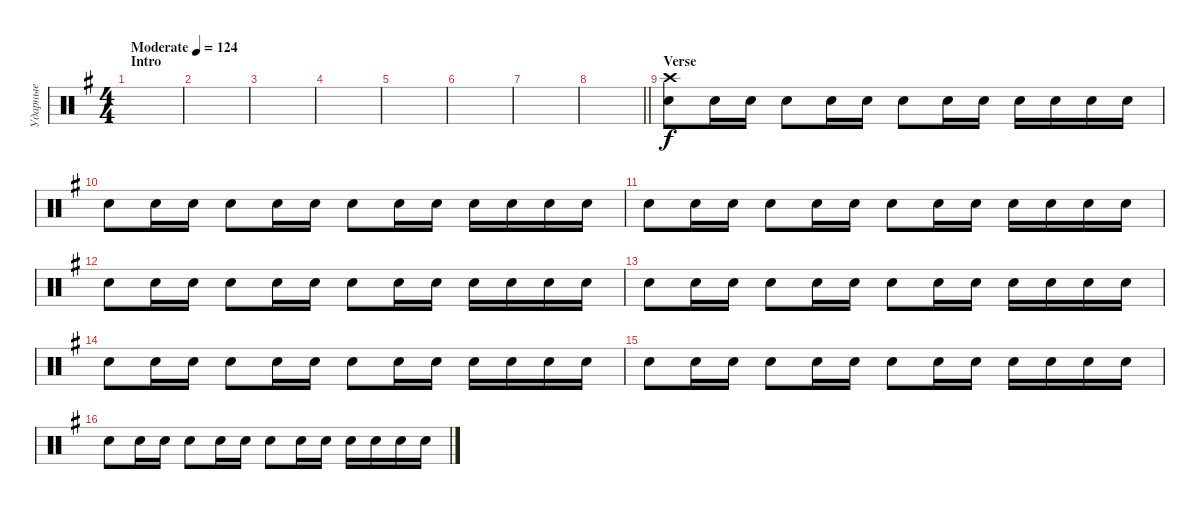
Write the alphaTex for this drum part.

\track ("Ударные" "Ударные") {instrument percussion}
\staff {score}
\articulation defaults
\ts (4 4)
\section ("" "Intro")
\tempo (124 "Moderate")
\clef neutral
\ks g
|
|
|
|
|
|
|
\barLineRight lightlight
|
\section ("" "Verse")
("Crash high (hit)" "Electric Snare (hit)").8{volume 10} "Electric Snare (hit)".16 "Electric Snare (hit)".16 "Electric Snare (hit)".8 "Electric Snare (hit)".16 "Electric Snare (hit)".16 "Electric Snare (hit)".8 "Electric Snare (hit)".16 "Electric Snare (hit)".16 "Electric Snare (hit)".16 "Electric Snare (hit)".16 "Electric Snare (hit)".16 "Electric Snare (hit)".16 |
"Electric Snare (hit)".8{volume 10} "Electric Snare (hit)".16 "Electric Snare (hit)".16 "Electric Snare (hit)".8 "Electric Snare (hit)".16 "Electric Snare (hit)".16 "Electric Snare (hit)".8 "Electric Snare (hit)".16 "Electric Snare (hit)".16 "Electric Snare (hit)".16 "Electric Snare (hit)".16 "Electric Snare (hit)".16 "Electric Snare (hit)".16 |
"Electric Snare (hit)".8{volume 10} "Electric Snare (hit)".16 "Electric Snare (hit)".16 "Electric Snare (hit)".8 "Electric Snare (hit)".16 "Electric Snare (hit)".16 "Electric Snare (hit)".8 "Electric Snare (hit)".16 "Electric Snare (hit)".16 "Electric Snare (hit)".16 "Electric Snare (hit)".16 "Electric Snare (hit)".16 "Electric Snare (hit)".16 |
"Electric Snare (hit)".8{volume 10} "Electric Snare (hit)".16 "Electric Snare (hit)".16 "Electric Snare (hit)".8 "Electric Snare (hit)".16 "Electric Snare (hit)".16 "Electric Snare (hit)".8 "Electric Snare (hit)".16 "Electric Snare (hit)".16 "Electric Snare (hit)".16 "Electric Snare (hit)".16 "Electric Snare (hit)".16 "Electric Snare (hit)".16 |
"Electric Snare (hit)".8{volume 10} "Electric Snare (hit)".16 "Electric Snare (hit)".16 "Electric Snare (hit)".8 "Electric Snare (hit)".16 "Electric Snare (hit)".16 "Electric Snare (hit)".8 "Electric Snare (hit)".16 "Electric Snare (hit)".16 "Electric Snare (hit)".16 "Electric Snare (hit)".16 "Electric Snare (hit)".16 "Electric Snare (hit)".16 |
"Electric Snare (hit)".8{volume 10} "Electric Snare (hit)".16 "Electric Snare (hit)".16 "Electric Snare (hit)".8 "Electric Snare (hit)".16 "Electric Snare (hit)".16 "Electric Snare (hit)".8 "Electric Snare (hit)".16 "Electric Snare (hit)".16 "Electric Snare (hit)".16 "Electric Snare (hit)".16 "Electric Snare (hit)".16 "Electric Snare (hit)".16 |
"Electric Snare (hit)".8{volume 10} "Electric Snare (hit)".16 "Electric Snare (hit)".16 "Electric Snare (hit)".8 "Electric Snare (hit)".16 "Electric Snare (hit)".16 "Electric Snare (hit)".8 "Electric Snare (hit)".16 "Electric Snare (hit)".16 "Electric Snare (hit)".16 "Electric Snare (hit)".16 "Electric Snare (hit)".16 "Electric Snare (hit)".16 |
"Electric Snare (hit)".8{volume 10} "Electric Snare (hit)".16 "Electric Snare (hit)".16 "Electric Snare (hit)".8 "Electric Snare (hit)".16 "Electric Snare (hit)".16 "Electric Snare (hit)".8 "Electric Snare (hit)".16 "Electric Snare (hit)".16 "Electric Snare (hit)".16 "Electric Snare (hit)".16 "Electric Snare (hit)".16 "Electric Snare (hit)".16
